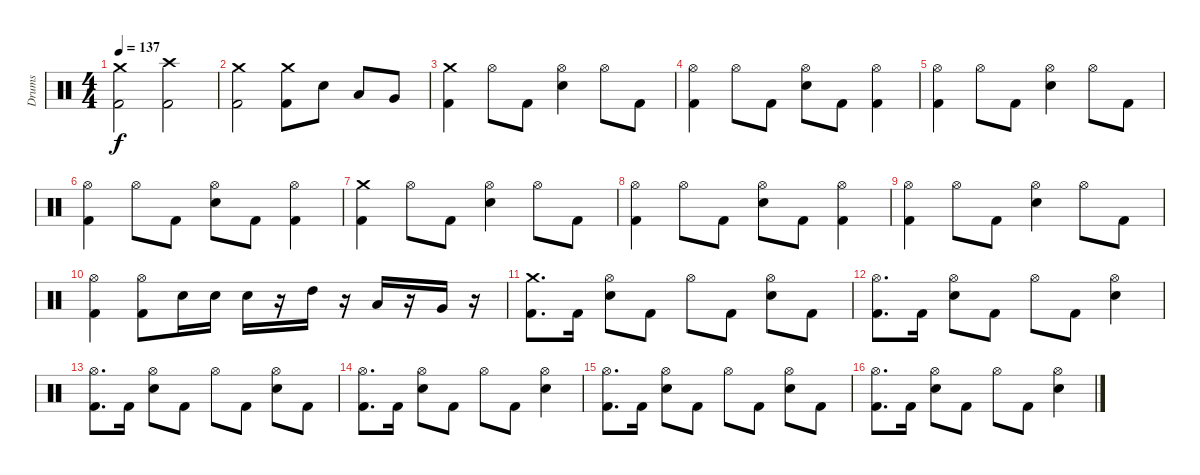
\track ("Drums" "Drums") {instrument percussion}
\staff {score}
\articulation defaults
\ts (4 4)
\tempo 137
\clef neutral
\ks c
("Crash medium (hit)" "Kick (hit) 2").2{dy f} ("Crash high (hit)" "Kick (hit) 2").2 |
("Crash medium (hit)" "Kick (hit) 2").2 ("Crash medium (hit)" "Kick (hit) 2").8 "Electric Snare (hit)".8 "Low Tom (hit)".8 "Very Low Tom (hit)".8 |
("Kick (hit) 2" "Crash medium (hit)").4 "Hi-Hat (open)".8 "Kick (hit) 2".8 ("Electric Snare (hit)" "Hi-Hat (open)").4 "Hi-Hat (open)".8 "Kick (hit) 2".8 |
("Kick (hit) 2" "Hi-Hat (open)").4 "Hi-Hat (open)".8 "Kick (hit) 2".8 ("Electric Snare (hit)" "Hi-Hat (open)").8 "Kick (hit) 2".8 ("Kick (hit) 2" "Hi-Hat (open)").4 |
("Hi-Hat (open)" "Kick (hit) 2").4 "Hi-Hat (open)".8 "Kick (hit) 2".8 ("Electric Snare (hit)" "Hi-Hat (open)").4 "Hi-Hat (open)".8 "Kick (hit) 2".8 |
("Kick (hit) 2" "Hi-Hat (open)").4 "Hi-Hat (open)".8 "Kick (hit) 2".8 ("Electric Snare (hit)" "Hi-Hat (open)").8 "Kick (hit) 2".8 ("Kick (hit) 2" "Hi-Hat (open)").4 |
("Kick (hit) 2" "Crash medium (hit)").4 "Hi-Hat (open)".8 "Kick (hit) 2".8 ("Electric Snare (hit)" "Hi-Hat (open)").4 "Hi-Hat (open)".8 "Kick (hit) 2".8 |
("Kick (hit) 2" "Hi-Hat (open)").4 "Hi-Hat (open)".8 "Kick (hit) 2".8 ("Electric Snare (hit)" "Hi-Hat (open)").8 "Kick (hit) 2".8 ("Kick (hit) 2" "Hi-Hat (open)").4 |
("Hi-Hat (open)" "Kick (hit) 2").4 "Hi-Hat (open)".8 "Kick (hit) 2".8 ("Electric Snare (hit)" "Hi-Hat (open)").4 "Hi-Hat (open)".8 "Kick (hit) 2".8 |
("Kick (hit) 2" "Hi-Hat (open)").4 ("Hi-Hat (open)" "Kick (hit) 2").8 "Electric Snare (hit)".16 "Electric Snare (hit)".16 "Electric Snare (hit)".16 r.16 "High Tom (hit)".16 r.16 "Low Tom (hit)".16 r.16 "Very Low Tom (hit)".16 r.16 |
("Crash medium (hit)" "Kick (hit) 2").8{d} "Kick (hit) 2".16 ("Hi-Hat (open)" "Electric Snare (hit)").8 "Kick (hit) 2".8 "Hi-Hat (open)".8 "Kick (hit) 2".8 ("Hi-Hat (open)" "Electric Snare (hit)").8 "Kick (hit) 2".8 |
("Hi-Hat (open)" "Kick (hit) 2").8{d} "Kick (hit) 2".16 ("Hi-Hat (open)" "Electric Snare (hit)").8 "Kick (hit) 2".8 "Hi-Hat (open)".8 "Kick (hit) 2".8 ("Hi-Hat (open)" "Electric Snare (hit)").4 |
("Hi-Hat (open)" "Kick (hit) 2").8{d} "Kick (hit) 2".16 ("Hi-Hat (open)" "Electric Snare (hit)").8 "Kick (hit) 2".8 "Hi-Hat (open)".8 "Kick (hit) 2".8 ("Hi-Hat (open)" "Electric Snare (hit)").8 "Kick (hit) 2".8 |
("Hi-Hat (open)" "Kick (hit) 2").8{d} "Kick (hit) 2".16 ("Hi-Hat (open)" "Electric Snare (hit)").8 "Kick (hit) 2".8 "Hi-Hat (open)".8 "Kick (hit) 2".8 ("Hi-Hat (open)" "Electric Snare (hit)").4 |
("Hi-Hat (open)" "Kick (hit) 2").8{d} "Kick (hit) 2".16 ("Hi-Hat (open)" "Electric Snare (hit)").8 "Kick (hit) 2".8 "Hi-Hat (open)".8 "Kick (hit) 2".8 ("Hi-Hat (open)" "Electric Snare (hit)").8 "Kick (hit) 2".8 |
("Hi-Hat (open)" "Kick (hit) 2").8{d} "Kick (hit) 2".16 ("Hi-Hat (open)" "Electric Snare (hit)").8 "Kick (hit) 2".8 "Hi-Hat (open)".8 "Kick (hit) 2".8 ("Hi-Hat (open)" "Electric Snare (hit)").4
